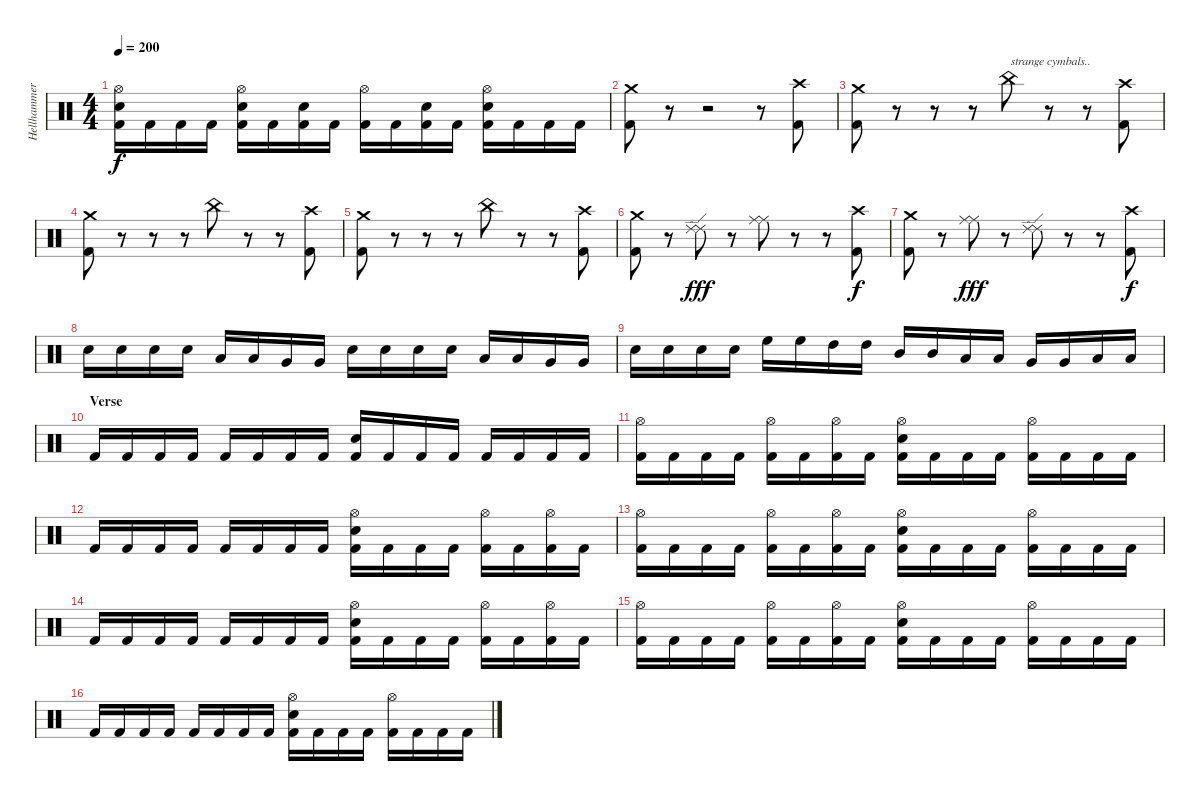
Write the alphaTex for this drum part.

\track ("Hellhammer" "Hellhammer") {instrument percussion}
\staff {score}
\articulation defaults
\ts (4 4)
\tempo 200
\clef neutral
\ks c
("Hi-Hat (open)" "Electric Snare (hit)" "Kick (hit) 2").16{dy f} "Kick (hit) 2".16 "Kick (hit) 2".16 "Kick (hit) 2".16 ("Hi-Hat (open)" "Electric Snare (hit)" "Kick (hit) 2").16 "Kick (hit) 2".16 ("Electric Snare (hit)" "Kick (hit) 2").16 "Kick (hit) 2".16 ("Hi-Hat (open)" "Kick (hit) 2").16 "Kick (hit) 2".16 ("Electric Snare (hit)" "Kick (hit) 2").16 "Kick (hit) 2".16 ("Hi-Hat (open)" "Electric Snare (hit)" "Kick (hit) 2").16 "Kick (hit) 2".16 "Kick (hit) 2".16 "Kick (hit) 2".16 |
("Crash medium (hit)" "Kick (hit) 2").8 r.8 r.2 r.8 ("Crash high (hit)" "Kick (hit) 2").8 |
("Crash medium (hit)" "Kick (hit) 2").8 r.8 r.8 r.8 "China (hit)".8{txt "strange cymbals.."} r.8 r.8 ("Crash high (hit)" "Kick (hit) 2").8 |
("Crash medium (hit)" "Kick (hit) 2").8 r.8 r.8 r.8 "China (hit)".8 r.8 r.8 ("Crash high (hit)" "Kick (hit) 2").8 |
("Crash medium (hit)" "Kick (hit) 2").8 r.8 r.8 r.8 "China (hit)".8 r.8 r.8 ("Crash high (hit)" "Kick (hit) 2").8 |
("Crash medium (hit)" "Kick (hit) 2").8 r.8 ("Ride (edge) 2" "Ride (edge) 2").8{bu 480 dy fff} r.8 ("Ride (middle)" "Ride (middle)").8{bd 480} r.8 r.8 ("Crash high (hit)" "Kick (hit) 2").8{dy f} |
("Crash medium (hit)" "Kick (hit) 2").8 r.8 ("Ride (middle)" "Ride (middle)").8{bd 480 dy fff} r.8 ("Ride (edge) 2" "Ride (edge) 2").8{bu 480} r.8 r.8 ("Crash high (hit)" "Kick (hit) 2").8{dy f} |
"Electric Snare (hit)".16 "Electric Snare (hit)".16 "Electric Snare (hit)".16 "Electric Snare (hit)".16 "Low Tom (hit)".16 "Low Tom (hit)".16 "Very Low Tom (hit)".16 "Very Low Tom (hit)".16 "Electric Snare (hit)".16 "Electric Snare (hit)".16 "Electric Snare (hit)".16 "Electric Snare (hit)".16 "Low Tom (hit)".16 "Low Tom (hit)".16 "Very Low Tom (hit)".16 "Very Low Tom (hit)".16 |
"Electric Snare (hit)".16 "Electric Snare (hit)".16 "Electric Snare (hit)".16 "Electric Snare (hit)".16 "High Floor Tom (hit)".16{balance 0} "High Floor Tom (hit)".16 "High Tom (hit)".16 "High Tom (hit)".16 "Mid Tom (hit)".16 "Mid Tom (hit)".16 "Low Tom (hit)".16{balance 16} "Low Tom (hit)".16 "Very Low Tom (hit)".16 "Very Low Tom (hit)".16 "Low Floor Tom (hit)".16 "Low Floor Tom (hit)".16 |
\section ("" "Verse")
"Kick (hit) 2".16{balance 8} "Kick (hit) 2".16 "Kick (hit) 2".16 "Kick (hit) 2".16 "Kick (hit) 2".16 "Kick (hit) 2".16 "Kick (hit) 2".16 "Kick (hit) 2".16 ("Electric Snare (hit)" "Kick (hit) 2").16 "Kick (hit) 2".16 "Kick (hit) 2".16 "Kick (hit) 2".16 "Kick (hit) 2".16 "Kick (hit) 2".16 "Kick (hit) 2".16 "Kick (hit) 2".16 |
("Hi-Hat (open)" "Kick (hit) 2").16 "Kick (hit) 2".16 "Kick (hit) 2".16 "Kick (hit) 2".16 ("Hi-Hat (open)" "Kick (hit) 2").16 "Kick (hit) 2".16 ("Hi-Hat (open)" "Kick (hit) 2").16 "Kick (hit) 2".16 ("Hi-Hat (open)" "Electric Snare (hit)" "Kick (hit) 2").16 "Kick (hit) 2".16 "Kick (hit) 2".16 "Kick (hit) 2".16 ("Hi-Hat (open)" "Kick (hit) 2").16 "Kick (hit) 2".16 "Kick (hit) 2".16 "Kick (hit) 2".16 |
"Kick (hit) 2".16 "Kick (hit) 2".16 "Kick (hit) 2".16 "Kick (hit) 2".16 "Kick (hit) 2".16 "Kick (hit) 2".16 "Kick (hit) 2".16 "Kick (hit) 2".16 ("Hi-Hat (open)" "Electric Snare (hit)" "Kick (hit) 2").16 "Kick (hit) 2".16 "Kick (hit) 2".16 "Kick (hit) 2".16 ("Hi-Hat (open)" "Kick (hit) 2").16 "Kick (hit) 2".16 ("Hi-Hat (open)" "Kick (hit) 2").16 "Kick (hit) 2".16 |
("Hi-Hat (open)" "Kick (hit) 2").16{balance 8} "Kick (hit) 2".16 "Kick (hit) 2".16 "Kick (hit) 2".16 ("Hi-Hat (open)" "Kick (hit) 2").16 "Kick (hit) 2".16 ("Hi-Hat (open)" "Kick (hit) 2").16 "Kick (hit) 2".16 ("Hi-Hat (open)" "Electric Snare (hit)" "Kick (hit) 2").16 "Kick (hit) 2".16 "Kick (hit) 2".16 "Kick (hit) 2".16 ("Hi-Hat (open)" "Kick (hit) 2").16 "Kick (hit) 2".16 "Kick (hit) 2".16 "Kick (hit) 2".16 |
"Kick (hit) 2".16 "Kick (hit) 2".16 "Kick (hit) 2".16 "Kick (hit) 2".16 "Kick (hit) 2".16 "Kick (hit) 2".16 "Kick (hit) 2".16 "Kick (hit) 2".16 ("Hi-Hat (open)" "Electric Snare (hit)" "Kick (hit) 2").16 "Kick (hit) 2".16 "Kick (hit) 2".16 "Kick (hit) 2".16 ("Hi-Hat (open)" "Kick (hit) 2").16 "Kick (hit) 2".16 ("Hi-Hat (open)" "Kick (hit) 2").16 "Kick (hit) 2".16 |
("Hi-Hat (open)" "Kick (hit) 2").16{balance 8} "Kick (hit) 2".16 "Kick (hit) 2".16 "Kick (hit) 2".16 ("Hi-Hat (open)" "Kick (hit) 2").16 "Kick (hit) 2".16 ("Hi-Hat (open)" "Kick (hit) 2").16 "Kick (hit) 2".16 ("Hi-Hat (open)" "Electric Snare (hit)" "Kick (hit) 2").16 "Kick (hit) 2".16 "Kick (hit) 2".16 "Kick (hit) 2".16 ("Hi-Hat (open)" "Kick (hit) 2").16 "Kick (hit) 2".16 "Kick (hit) 2".16 "Kick (hit) 2".16 |
"Kick (hit) 2".16 "Kick (hit) 2".16 "Kick (hit) 2".16 "Kick (hit) 2".16 "Kick (hit) 2".16 "Kick (hit) 2".16 "Kick (hit) 2".16 "Kick (hit) 2".16 ("Hi-Hat (open)" "Electric Snare (hit)" "Kick (hit) 2").16 "Kick (hit) 2".16 "Kick (hit) 2".16 "Kick (hit) 2".16 ("Hi-Hat (open)" "Kick (hit) 2").16 "Kick (hit) 2".16 "Kick (hit) 2".16 "Kick (hit) 2".16
